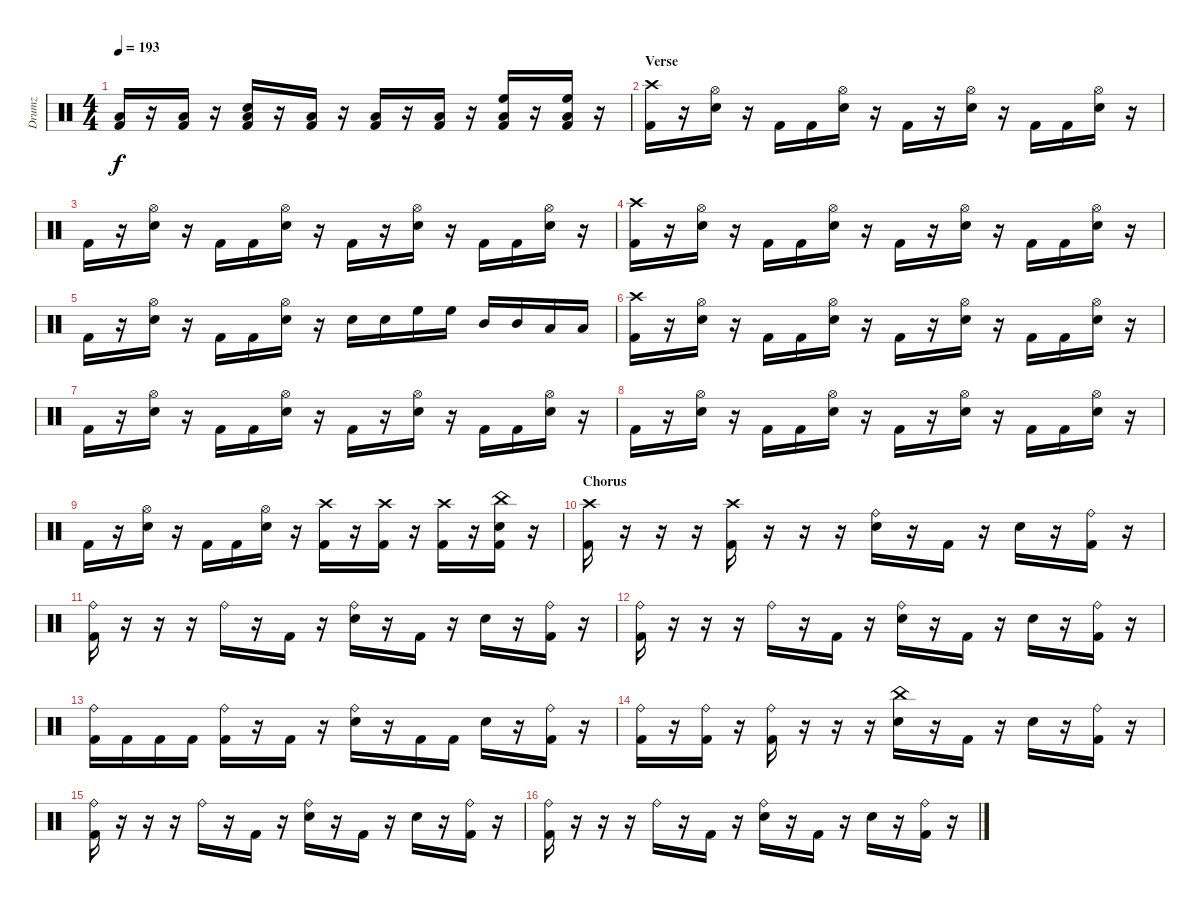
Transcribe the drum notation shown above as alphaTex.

\track ("Drumz" "Drumz") {instrument percussion}
\staff {score}
\articulation defaults
\ts (4 4)
\tempo 193
\clef neutral
\ks c
("Low Tom (hit)" "Kick (hit) 2").16{dy f} r.16 ("Low Tom (hit)" "Kick (hit) 2").16 r.16 ("Electric Snare (hit)" "Low Tom (hit)" "Kick (hit) 2").16 r.16 ("Low Tom (hit)" "Kick (hit) 2").16 r.16 ("Low Tom (hit)" "Kick (hit) 2").16 r.16 ("Low Tom (hit)" "Kick (hit) 2").16 r.16 ("High Floor Tom (hit)" "Low Floor Tom (hit)" "Kick (hit) 2").16 r.16 ("High Floor Tom (hit)" "Low Floor Tom (hit)" "Kick (hit) 2").16 r.16 |
\section ("" "Verse")
("Crash high (hit)" "Kick (hit) 2").16 r.16 ("Hi-Hat (open)" "Electric Snare (hit)").16 r.16 "Kick (hit) 2".16 "Kick (hit) 2".16 ("Hi-Hat (open)" "Electric Snare (hit)").16 r.16 "Kick (hit) 2".16 r.16 ("Hi-Hat (open)" "Electric Snare (hit)").16 r.16 "Kick (hit) 2".16 "Kick (hit) 2".16 ("Hi-Hat (open)" "Electric Snare (hit)").16 r.16 |
"Kick (hit) 2".16 r.16 ("Hi-Hat (open)" "Electric Snare (hit)").16 r.16 "Kick (hit) 2".16 "Kick (hit) 2".16 ("Hi-Hat (open)" "Electric Snare (hit)").16 r.16 "Kick (hit) 2".16 r.16 ("Hi-Hat (open)" "Electric Snare (hit)").16 r.16 "Kick (hit) 2".16 "Kick (hit) 2".16 ("Hi-Hat (open)" "Electric Snare (hit)").16 r.16 |
("Crash high (hit)" "Kick (hit) 2").16 r.16 ("Hi-Hat (open)" "Electric Snare (hit)").16 r.16 "Kick (hit) 2".16 "Kick (hit) 2".16 ("Hi-Hat (open)" "Electric Snare (hit)").16 r.16 "Kick (hit) 2".16 r.16 ("Hi-Hat (open)" "Electric Snare (hit)").16 r.16 "Kick (hit) 2".16 "Kick (hit) 2".16 ("Hi-Hat (open)" "Electric Snare (hit)").16 r.16 |
"Kick (hit) 2".16 r.16 ("Hi-Hat (open)" "Electric Snare (hit)").16 r.16 "Kick (hit) 2".16 "Kick (hit) 2".16 ("Hi-Hat (open)" "Electric Snare (hit)").16 r.16 "Electric Snare (hit)".16 "Electric Snare (hit)".16 "High Floor Tom (hit)".16 "High Floor Tom (hit)".16 "Mid Tom (hit)".16 "Mid Tom (hit)".16 "Low Tom (hit)".16 "Low Tom (hit)".16 |
("Crash high (hit)" "Kick (hit) 2").16 r.16 ("Hi-Hat (open)" "Electric Snare (hit)").16 r.16 "Kick (hit) 2".16 "Kick (hit) 2".16 ("Hi-Hat (open)" "Electric Snare (hit)").16 r.16 "Kick (hit) 2".16 r.16 ("Hi-Hat (open)" "Electric Snare (hit)").16 r.16 "Kick (hit) 2".16 "Kick (hit) 2".16 ("Hi-Hat (open)" "Electric Snare (hit)").16 r.16 |
"Kick (hit) 2".16 r.16 ("Hi-Hat (open)" "Electric Snare (hit)").16 r.16 "Kick (hit) 2".16 "Kick (hit) 2".16 ("Hi-Hat (open)" "Electric Snare (hit)").16 r.16 "Kick (hit) 2".16 r.16 ("Hi-Hat (open)" "Electric Snare (hit)").16 r.16 "Kick (hit) 2".16 "Kick (hit) 2".16 ("Hi-Hat (open)" "Electric Snare (hit)").16 r.16 |
"Kick (hit) 2".16 r.16 ("Hi-Hat (open)" "Electric Snare (hit)").16 r.16 "Kick (hit) 2".16 "Kick (hit) 2".16 ("Hi-Hat (open)" "Electric Snare (hit)").16 r.16 "Kick (hit) 2".16 r.16 ("Hi-Hat (open)" "Electric Snare (hit)").16 r.16 "Kick (hit) 2".16 "Kick (hit) 2".16 ("Hi-Hat (open)" "Electric Snare (hit)").16 r.16 |
"Kick (hit) 2".16 r.16 ("Hi-Hat (open)" "Electric Snare (hit)").16 r.16 "Kick (hit) 2".16 "Kick (hit) 2".16 ("Hi-Hat (open)" "Electric Snare (hit)").16 r.16 ("Crash high (hit)" "Kick (hit) 2").16 r.16 ("Crash high (hit)" "Kick (hit) 2").16 r.16 ("Crash high (hit)" "Kick (hit) 2").16 r.16 ("China (hit)" "Electric Snare (hit)" "Kick (hit) 2").16 r.16 |
\section ("" "Chorus")
("Crash high (hit)" "Kick (hit) 2").16 r.16 r.16 r.16 ("Crash high (hit)" "Kick (hit) 2").16 r.16 r.16 r.16 ("Ride (bell)" "Electric Snare (hit)").16 r.16 "Kick (hit) 2".16 r.16 "Electric Snare (hit)".16 r.16 ("Ride (bell)" "Kick (hit) 2").16 r.16 |
("Ride (bell)" "Kick (hit) 2").16 r.16 r.16 r.16 "Ride (bell)".16 r.16 "Kick (hit) 2".16 r.16 ("Ride (bell)" "Electric Snare (hit)").16 r.16 "Kick (hit) 2".16 r.16 "Electric Snare (hit)".16 r.16 ("Ride (bell)" "Kick (hit) 2").16 r.16 |
("Ride (bell)" "Kick (hit) 2").16 r.16 r.16 r.16 "Ride (bell)".16 r.16 "Kick (hit) 2".16 r.16 ("Ride (bell)" "Electric Snare (hit)").16 r.16 "Kick (hit) 2".16 r.16 "Electric Snare (hit)".16 r.16 ("Ride (bell)" "Kick (hit) 2").16 r.16 |
("Ride (bell)" "Kick (hit) 2").16 "Kick (hit) 2".16 "Kick (hit) 2".16 "Kick (hit) 2".16 ("Ride (bell)" "Kick (hit) 2").16 r.16 "Kick (hit) 2".16 r.16 ("Ride (bell)" "Electric Snare (hit)").16 r.16 "Kick (hit) 2".16 "Kick (hit) 2".16 "Electric Snare (hit)".16 r.16 ("Ride (bell)" "Kick (hit) 2").16 r.16 |
("Ride (bell)" "Kick (hit) 2").16 r.16 ("Ride (bell)" "Kick (hit) 2").16 r.16 ("Ride (bell)" "Kick (hit) 2").16 r.16 r.16 r.16 ("China (hit)" "Electric Snare (hit)").16 r.16 "Kick (hit) 2".16 r.16 "Electric Snare (hit)".16 r.16 ("Ride (bell)" "Kick (hit) 2").16 r.16 |
("Ride (bell)" "Kick (hit) 2").16 r.16 r.16 r.16 "Ride (bell)".16 r.16 "Kick (hit) 2".16 r.16 ("Ride (bell)" "Electric Snare (hit)").16 r.16 "Kick (hit) 2".16 r.16 "Electric Snare (hit)".16 r.16 ("Ride (bell)" "Kick (hit) 2").16 r.16 |
("Ride (bell)" "Kick (hit) 2").16 r.16 r.16 r.16 "Ride (bell)".16 r.16 "Kick (hit) 2".16 r.16 ("Ride (bell)" "Electric Snare (hit)").16 r.16 "Kick (hit) 2".16 r.16 "Electric Snare (hit)".16 r.16 ("Ride (bell)" "Kick (hit) 2").16 r.16
